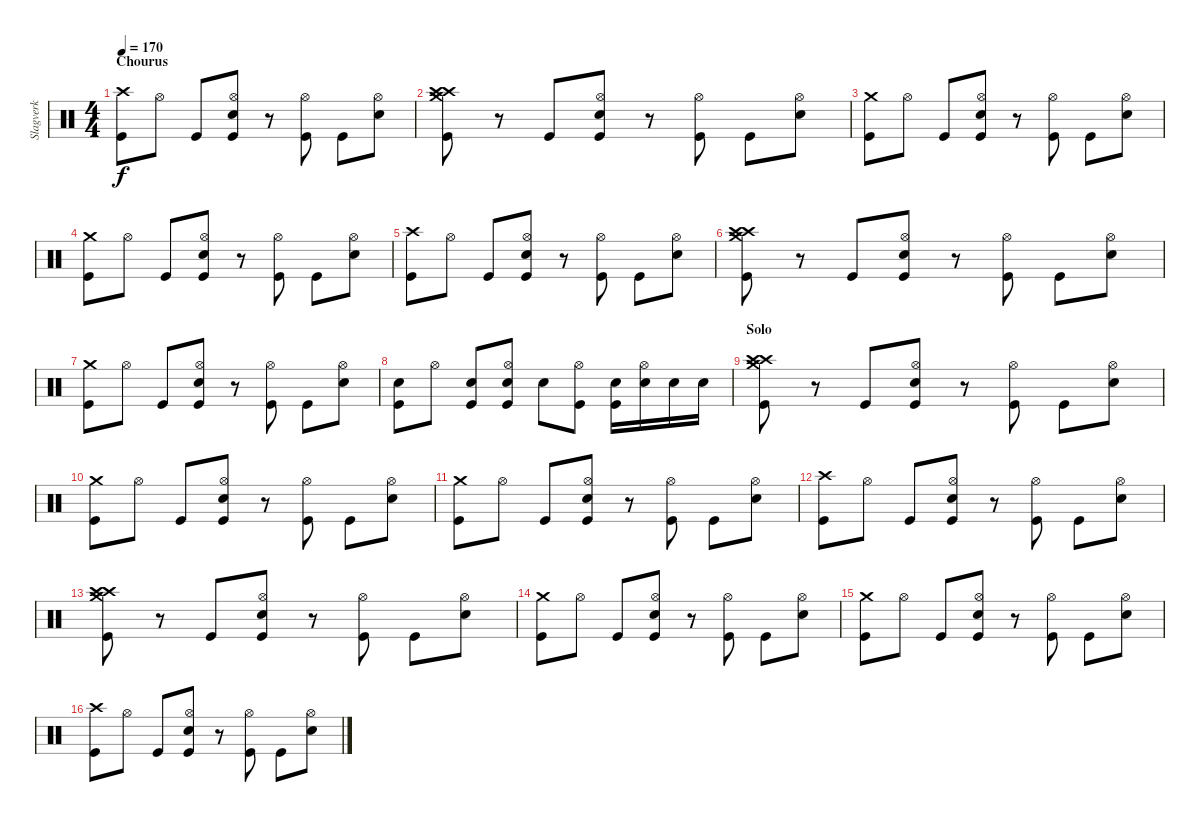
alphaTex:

\track ("Slagverk" "Slagverk") {instrument percussion}
\staff {score}
\articulation defaults
\ts (4 4)
\section ("" "Chourus")
\tempo 170
\clef neutral
\ks c
("Crash high (hit)" "Kick (hit)").8{dy f} "Hi-Hat (open)".8 "Kick (hit)".8 ("Hi-Hat (open)" "Snare (hit) 2" "Kick (hit)").8 r.8 ("Hi-Hat (open)" "Kick (hit)").8 "Kick (hit)".8 ("Hi-Hat (open)" "Snare (hit) 2").8 |
("Crash high (hit)" "Crash high (hit)" "Crash medium (hit)" "Kick (hit)").8 r.8 "Kick (hit)".8 ("Hi-Hat (open)" "Snare (hit) 2" "Kick (hit)").8 r.8 ("Hi-Hat (open)" "Kick (hit)").8 "Kick (hit)".8 ("Hi-Hat (open)" "Snare (hit) 2").8 |
("Crash medium (hit)" "Kick (hit)").8 "Hi-Hat (open)".8 "Kick (hit)".8 ("Hi-Hat (open)" "Snare (hit) 2" "Kick (hit)").8 r.8 ("Hi-Hat (open)" "Kick (hit)").8 "Kick (hit)".8 ("Hi-Hat (open)" "Snare (hit) 2").8 |
("Crash medium (hit)" "Kick (hit)").8 "Hi-Hat (open)".8 "Kick (hit)".8 ("Hi-Hat (open)" "Snare (hit) 2" "Kick (hit)").8 r.8 ("Hi-Hat (open)" "Kick (hit)").8 "Kick (hit)".8 ("Hi-Hat (open)" "Snare (hit) 2").8 |
("Crash high (hit)" "Kick (hit)").8 "Hi-Hat (open)".8 "Kick (hit)".8 ("Hi-Hat (open)" "Snare (hit) 2" "Kick (hit)").8 r.8 ("Hi-Hat (open)" "Kick (hit)").8 "Kick (hit)".8 ("Hi-Hat (open)" "Snare (hit) 2").8 |
("Crash high (hit)" "Crash high (hit)" "Crash medium (hit)" "Kick (hit)").8 r.8 "Kick (hit)".8 ("Hi-Hat (open)" "Snare (hit) 2" "Kick (hit)").8 r.8 ("Hi-Hat (open)" "Kick (hit)").8 "Kick (hit)".8 ("Hi-Hat (open)" "Snare (hit) 2").8 |
("Crash medium (hit)" "Kick (hit)").8 "Hi-Hat (open)".8 "Kick (hit)".8 ("Hi-Hat (open)" "Snare (hit) 2" "Kick (hit)").8 r.8 ("Hi-Hat (open)" "Kick (hit)").8 "Kick (hit)".8 ("Hi-Hat (open)" "Snare (hit) 2").8 |
("Snare (hit) 2" "Kick (hit)").8 "Hi-Hat (open)".8 ("Snare (hit) 2" "Kick (hit)").8 ("Hi-Hat (open)" "Snare (hit) 2" "Kick (hit)").8 "Snare (hit) 2".8 ("Hi-Hat (open)" "Kick (hit)").8 ("Snare (hit) 2" "Kick (hit)").16 ("Hi-Hat (open)" "Snare (hit) 2").16 "Snare (hit) 2".16 "Snare (hit) 2".16 |
\section ("" "Solo")
("Crash high (hit)" "Crash high (hit)" "Crash medium (hit)" "Kick (hit)").8 r.8 "Kick (hit)".8 ("Hi-Hat (open)" "Snare (hit) 2" "Kick (hit)").8 r.8 ("Hi-Hat (open)" "Kick (hit)").8 "Kick (hit)".8 ("Hi-Hat (open)" "Snare (hit) 2").8 |
("Crash medium (hit)" "Kick (hit)").8 "Hi-Hat (open)".8 "Kick (hit)".8 ("Hi-Hat (open)" "Snare (hit) 2" "Kick (hit)").8 r.8 ("Hi-Hat (open)" "Kick (hit)").8 "Kick (hit)".8 ("Hi-Hat (open)" "Snare (hit) 2").8 |
("Crash medium (hit)" "Kick (hit)").8 "Hi-Hat (open)".8 "Kick (hit)".8 ("Hi-Hat (open)" "Snare (hit) 2" "Kick (hit)").8 r.8 ("Hi-Hat (open)" "Kick (hit)").8 "Kick (hit)".8 ("Hi-Hat (open)" "Snare (hit) 2").8 |
("Crash high (hit)" "Kick (hit)").8 "Hi-Hat (open)".8 "Kick (hit)".8 ("Hi-Hat (open)" "Snare (hit) 2" "Kick (hit)").8 r.8 ("Hi-Hat (open)" "Kick (hit)").8 "Kick (hit)".8 ("Hi-Hat (open)" "Snare (hit) 2").8 |
("Crash high (hit)" "Crash high (hit)" "Crash medium (hit)" "Kick (hit)").8 r.8 "Kick (hit)".8 ("Hi-Hat (open)" "Snare (hit) 2" "Kick (hit)").8 r.8 ("Hi-Hat (open)" "Kick (hit)").8 "Kick (hit)".8 ("Hi-Hat (open)" "Snare (hit) 2").8 |
("Crash medium (hit)" "Kick (hit)").8 "Hi-Hat (open)".8 "Kick (hit)".8 ("Hi-Hat (open)" "Snare (hit) 2" "Kick (hit)").8 r.8 ("Hi-Hat (open)" "Kick (hit)").8 "Kick (hit)".8 ("Hi-Hat (open)" "Snare (hit) 2").8 |
("Crash medium (hit)" "Kick (hit)").8 "Hi-Hat (open)".8 "Kick (hit)".8 ("Hi-Hat (open)" "Snare (hit) 2" "Kick (hit)").8 r.8 ("Hi-Hat (open)" "Kick (hit)").8 "Kick (hit)".8 ("Hi-Hat (open)" "Snare (hit) 2").8 |
("Crash high (hit)" "Kick (hit)").8 "Hi-Hat (open)".8 "Kick (hit)".8 ("Hi-Hat (open)" "Snare (hit) 2" "Kick (hit)").8 r.8 ("Hi-Hat (open)" "Kick (hit)").8 "Kick (hit)".8 ("Hi-Hat (open)" "Snare (hit) 2").8
